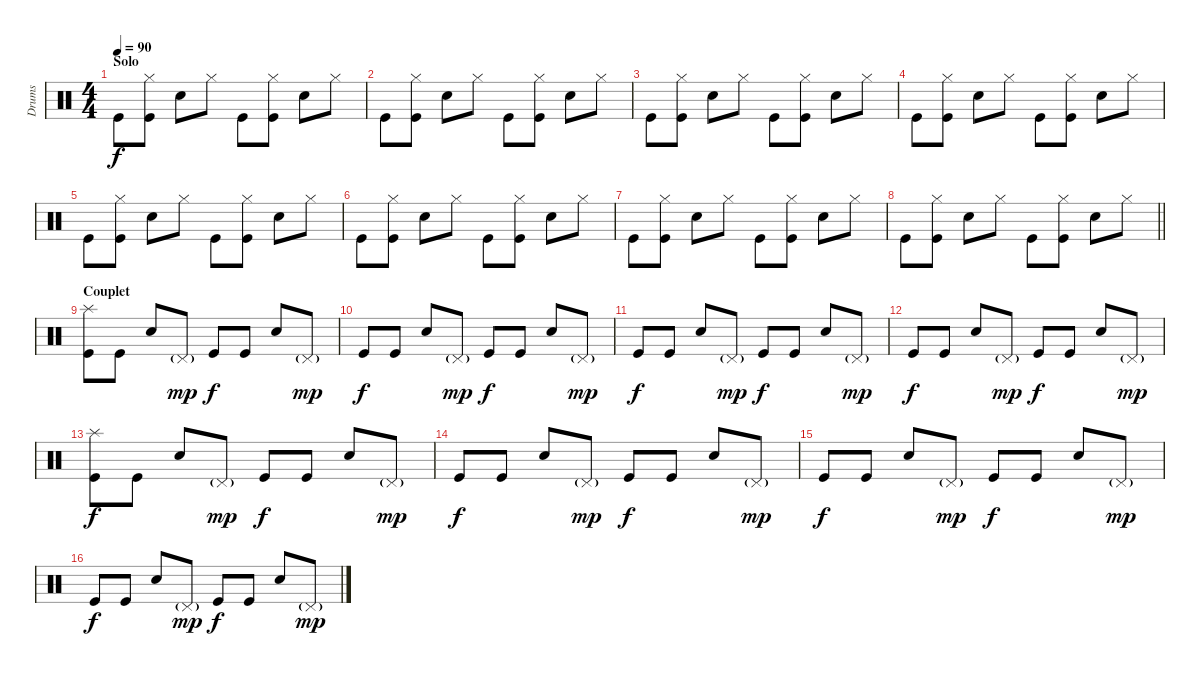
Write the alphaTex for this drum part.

\track ("Drums" "Drums") {instrument percussion}
\staff {score}
\articulation defaults
\ts (4 4)
\section ("" "Solo")
\tempo 90
\clef neutral
\ks c "Kick (hit)".8{dy f}
("Hi-Hat (closed)" "Kick (hit)").8 "Snare (hit) 2".8 "Hi-Hat (closed)".8 "Kick (hit)".8 ("Hi-Hat (closed)" "Kick (hit)").8 "Snare (hit) 2".8 "Hi-Hat (closed)".8 |
"Kick (hit)".8 ("Hi-Hat (closed)" "Kick (hit)").8 "Snare (hit) 2".8 "Hi-Hat (closed)".8 "Kick (hit)".8 ("Hi-Hat (closed)" "Kick (hit)").8 "Snare (hit) 2".8 "Hi-Hat (closed)".8 |
"Kick (hit)".8 ("Hi-Hat (closed)" "Kick (hit)").8 "Snare (hit) 2".8 "Hi-Hat (closed)".8 "Kick (hit)".8 ("Hi-Hat (closed)" "Kick (hit)").8 "Snare (hit) 2".8 "Hi-Hat (closed)".8 |
"Kick (hit)".8 ("Hi-Hat (closed)" "Kick (hit)").8 "Snare (hit) 2".8 "Hi-Hat (closed)".8 "Kick (hit)".8 ("Hi-Hat (closed)" "Kick (hit)").8 "Snare (hit) 2".8 "Hi-Hat (closed)".8 |
"Kick (hit)".8 ("Hi-Hat (closed)" "Kick (hit)").8 "Snare (hit) 2".8 "Hi-Hat (closed)".8 "Kick (hit)".8 ("Hi-Hat (closed)" "Kick (hit)").8 "Snare (hit) 2".8 "Hi-Hat (closed)".8 |
"Kick (hit)".8 ("Hi-Hat (closed)" "Kick (hit)").8 "Snare (hit) 2".8 "Hi-Hat (closed)".8 "Kick (hit)".8 ("Hi-Hat (closed)" "Kick (hit)").8 "Snare (hit) 2".8 "Hi-Hat (closed)".8 |
"Kick (hit)".8 ("Hi-Hat (closed)" "Kick (hit)").8 "Snare (hit) 2".8 "Hi-Hat (closed)".8 "Kick (hit)".8 ("Hi-Hat (closed)" "Kick (hit)").8 "Snare (hit) 2".8 "Hi-Hat (closed)".8 |
\barLineRight lightlight "Kick (hit)".8
("Hi-Hat (closed)" "Kick (hit)").8 "Snare (hit) 2".8 "Hi-Hat (closed)".8 "Kick (hit)".8 ("Hi-Hat (closed)" "Kick (hit)").8 "Snare (hit) 2".8 "Hi-Hat (closed)".8 |
\section ("" "Couplet")
("Splash (hit)" "Kick (hit)").8 "Kick (hit)".8 "Snare (hit) 2".8 "Pedal Hi-Hat (hit)"{g}.8{dy mp} "Kick (hit)".8{dy f} "Kick (hit)".8 "Snare (hit) 2".8 "Pedal Hi-Hat (hit)"{g}.8{dy mp} |
"Kick (hit)".8{dy f} "Kick (hit)".8 "Snare (hit) 2".8 "Pedal Hi-Hat (hit)"{g}.8{dy mp} "Kick (hit)".8{dy f} "Kick (hit)".8 "Snare (hit) 2".8 "Pedal Hi-Hat (hit)"{g}.8{dy mp} |
"Kick (hit)".8{dy f} "Kick (hit)".8 "Snare (hit) 2".8 "Pedal Hi-Hat (hit)"{g}.8{dy mp} "Kick (hit)".8{dy f} "Kick (hit)".8 "Snare (hit) 2".8 "Pedal Hi-Hat (hit)"{g}.8{dy mp} |
"Kick (hit)".8{dy f} "Kick (hit)".8 "Snare (hit) 2".8 "Pedal Hi-Hat (hit)"{g}.8{dy mp} "Kick (hit)".8{dy f} "Kick (hit)".8 "Snare (hit) 2".8 "Pedal Hi-Hat (hit)"{g}.8{dy mp} |
("Splash (hit)" "Kick (hit)").8{dy f} "Kick (hit)".8 "Snare (hit) 2".8 "Pedal Hi-Hat (hit)"{g}.8{dy mp} "Kick (hit)".8{dy f} "Kick (hit)".8 "Snare (hit) 2".8 "Pedal Hi-Hat (hit)"{g}.8{dy mp} |
"Kick (hit)".8{dy f} "Kick (hit)".8 "Snare (hit) 2".8 "Pedal Hi-Hat (hit)"{g}.8{dy mp} "Kick (hit)".8{dy f} "Kick (hit)".8 "Snare (hit) 2".8 "Pedal Hi-Hat (hit)"{g}.8{dy mp} |
"Kick (hit)".8{dy f} "Kick (hit)".8 "Snare (hit) 2".8 "Pedal Hi-Hat (hit)"{g}.8{dy mp} "Kick (hit)".8{dy f} "Kick (hit)".8 "Snare (hit) 2".8 "Pedal Hi-Hat (hit)"{g}.8{dy mp} |
"Kick (hit)".8{dy f} "Kick (hit)".8 "Snare (hit) 2".8 "Pedal Hi-Hat (hit)"{g}.8{dy mp} "Kick (hit)".8{dy f} "Kick (hit)".8 "Snare (hit) 2".8 "Pedal Hi-Hat (hit)"{g}.8{dy mp}
